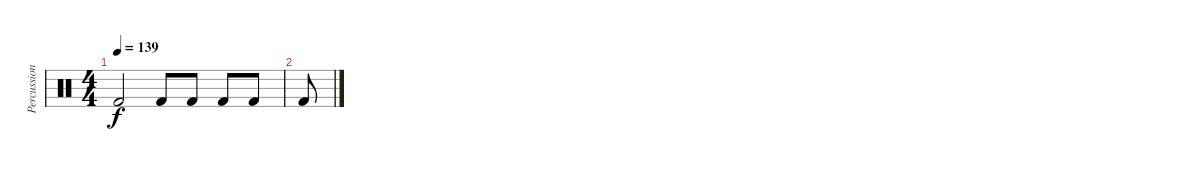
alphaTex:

\track ("Percussion" "Percussion") {solo instrument percussion}
\staff {score}
\articulation defaults
\ts (4 4)
\tempo 139
\clef neutral
\ks c "Kick (hit) 2".2{dy f} "Kick (hit) 2".8 "Kick (hit) 2".8 "Kick (hit) 2".8 "Kick (hit) 2".8
|
"Kick (hit) 2".8
